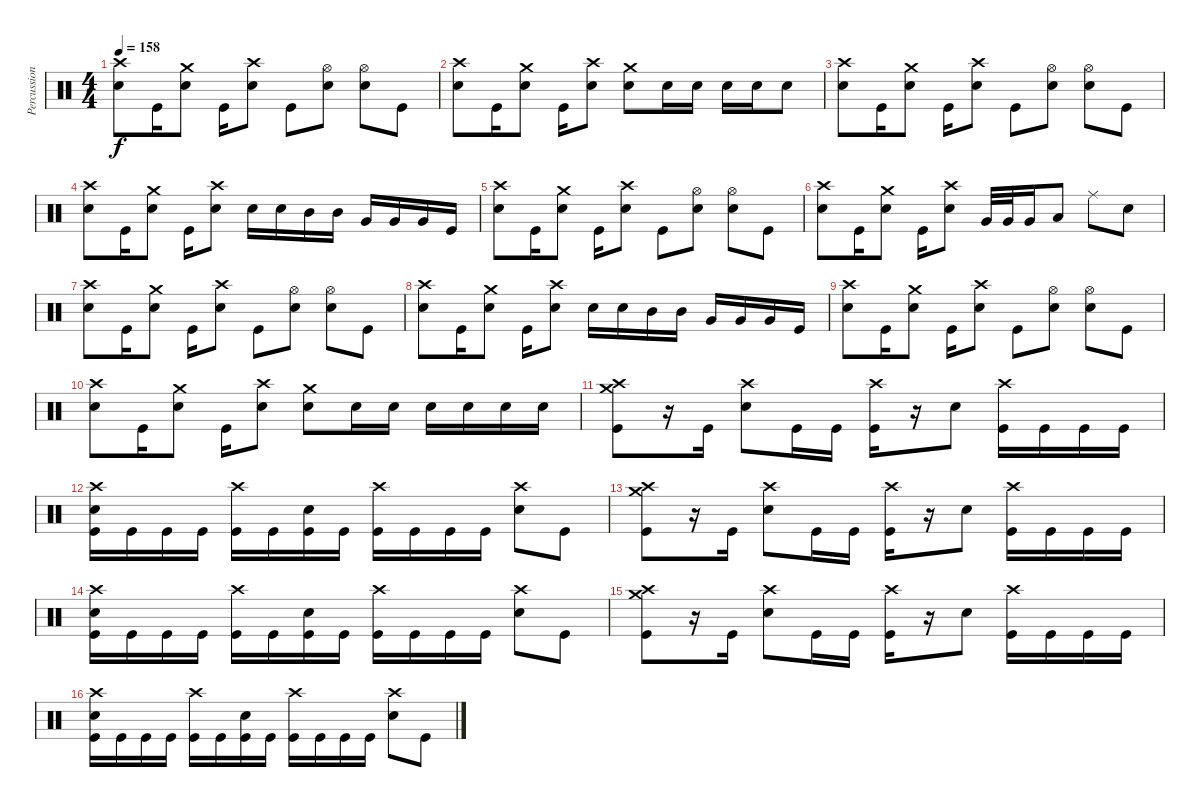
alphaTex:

\track ("Percussion" "Percussion") {instrument percussion}
\staff {score}
\articulation defaults
\ts (4 4)
\tempo 158
\clef neutral
\ks c
("Crash high (hit)" "Snare (hit) 2").8{dy f} "Kick (hit)".16 ("Crash medium (hit)" "Snare (hit) 2").8 "Kick (hit)".16 ("Crash high (hit)" "Snare (hit) 2").8 "Kick (hit)".8 ("Hi-Hat (open)" "Snare (hit) 2").8 ("Hi-Hat (open)" "Snare (hit) 2").8 "Kick (hit)".8 |
("Crash high (hit)" "Snare (hit) 2").8 "Kick (hit)".16 ("Crash medium (hit)" "Snare (hit) 2").8 "Kick (hit)".16 ("Crash high (hit)" "Snare (hit) 2").8 ("Crash medium (hit)" "Snare (hit) 2").8 "Snare (hit) 2".16 "Snare (hit) 2".16 "Snare (hit) 2".16 "Snare (hit) 2".16 "Snare (hit) 2".8 |
("Crash high (hit)" "Snare (hit) 2").8 "Kick (hit)".16 ("Crash medium (hit)" "Snare (hit) 2").8 "Kick (hit)".16 ("Crash high (hit)" "Snare (hit) 2").8 "Kick (hit)".8 ("Hi-Hat (open)" "Snare (hit) 2").8 ("Hi-Hat (open)" "Snare (hit) 2").8 "Kick (hit)".8 |
("Crash high (hit)" "Snare (hit) 2").8 "Kick (hit)".16 ("Crash medium (hit)" "Snare (hit) 2").8 "Kick (hit)".16 ("Crash high (hit)" "Snare (hit) 2").8 "Snare (hit) 2".16 "Snare (hit) 2".16 "Mid Tom (hit)".16 "Mid Tom (hit)".16 "Very Low Tom (hit)".16 "Very Low Tom (hit)".16 "Very Low Tom (hit)".16 "Kick (hit)".16 |
("Crash high (hit)" "Snare (hit) 2").8 "Kick (hit)".16 ("Crash medium (hit)" "Snare (hit) 2").8 "Kick (hit)".16 ("Crash high (hit)" "Snare (hit) 2").8 "Kick (hit)".8 ("Hi-Hat (open)" "Snare (hit) 2").8 ("Hi-Hat (open)" "Snare (hit) 2").8 "Kick (hit)".8 |
("Crash high (hit)" "Snare (hit) 2").8 "Kick (hit)".16 ("Crash medium (hit)" "Snare (hit) 2").8 "Kick (hit)".16 ("Crash high (hit)" "Snare (hit) 2").8 "Very Low Tom (hit)".32 "Very Low Tom (hit)".32 "Very Low Tom (hit)".16 "Low Floor Tom (hit)".8 "Ride (middle)".8 "Snare (hit) 2".8 |
("Crash high (hit)" "Snare (hit) 2").8 "Kick (hit)".16 ("Crash medium (hit)" "Snare (hit) 2").8 "Kick (hit)".16 ("Crash high (hit)" "Snare (hit) 2").8 "Kick (hit)".8 ("Hi-Hat (open)" "Snare (hit) 2").8 ("Hi-Hat (open)" "Snare (hit) 2").8 "Kick (hit)".8 |
("Crash high (hit)" "Snare (hit) 2").8 "Kick (hit)".16 ("Crash medium (hit)" "Snare (hit) 2").8 "Kick (hit)".16 ("Crash high (hit)" "Snare (hit) 2").8 "Snare (hit) 2".16 "Snare (hit) 2".16 "Mid Tom (hit)".16 "Mid Tom (hit)".16 "Very Low Tom (hit)".16 "Very Low Tom (hit)".16 "Very Low Tom (hit)".16 "Kick (hit)".16 |
("Crash high (hit)" "Snare (hit) 2").8 "Kick (hit)".16 ("Crash medium (hit)" "Snare (hit) 2").8 "Kick (hit)".16 ("Crash high (hit)" "Snare (hit) 2").8 "Kick (hit)".8 ("Hi-Hat (open)" "Snare (hit) 2").8 ("Hi-Hat (open)" "Snare (hit) 2").8 "Kick (hit)".8 |
("Crash high (hit)" "Snare (hit) 2").8 "Kick (hit)".16 ("Crash medium (hit)" "Snare (hit) 2").8 "Kick (hit)".16 ("Crash high (hit)" "Snare (hit) 2").8 ("Crash medium (hit)" "Snare (hit) 2").8 "Snare (hit) 2".16 "Snare (hit) 2".16 "Snare (hit) 2".16 "Snare (hit) 2".16 "Snare (hit) 2".16 "Snare (hit) 2".16 |
("Crash high (hit)" "Crash medium (hit)" "Kick (hit)").8 r.16 "Kick (hit)".16 ("Crash high (hit)" "Snare (hit) 2").8 "Kick (hit)".16 "Kick (hit)".16 ("Crash high (hit)" "Kick (hit)").16 r.16 "Snare (hit) 2".8 ("Crash high (hit)" "Kick (hit)").16 "Kick (hit)".16 "Kick (hit)".16 "Kick (hit)".16 |
("Crash high (hit)" "Snare (hit) 2" "Kick (hit)").16 "Kick (hit)".16 "Kick (hit)".16 "Kick (hit)".16 ("Crash high (hit)" "Kick (hit)").16 "Kick (hit)".16 ("Snare (hit) 2" "Kick (hit)").16 "Kick (hit)".16 ("Crash high (hit)" "Kick (hit)").16 "Kick (hit)".16 "Kick (hit)".16 "Kick (hit)".16 ("Crash high (hit)" "Snare (hit) 2").8 "Kick (hit)".8 |
("Crash high (hit)" "Crash medium (hit)" "Kick (hit)").8 r.16 "Kick (hit)".16 ("Crash high (hit)" "Snare (hit) 2").8 "Kick (hit)".16 "Kick (hit)".16 ("Crash high (hit)" "Kick (hit)").16 r.16 "Snare (hit) 2".8 ("Crash high (hit)" "Kick (hit)").16 "Kick (hit)".16 "Kick (hit)".16 "Kick (hit)".16 |
("Crash high (hit)" "Snare (hit) 2" "Kick (hit)").16 "Kick (hit)".16 "Kick (hit)".16 "Kick (hit)".16 ("Crash high (hit)" "Kick (hit)").16 "Kick (hit)".16 ("Snare (hit) 2" "Kick (hit)").16 "Kick (hit)".16 ("Crash high (hit)" "Kick (hit)").16 "Kick (hit)".16 "Kick (hit)".16 "Kick (hit)".16 ("Crash high (hit)" "Snare (hit) 2").8 "Kick (hit)".8 |
("Crash high (hit)" "Crash medium (hit)" "Kick (hit)").8 r.16 "Kick (hit)".16 ("Crash high (hit)" "Snare (hit) 2").8 "Kick (hit)".16 "Kick (hit)".16 ("Crash high (hit)" "Kick (hit)").16 r.16 "Snare (hit) 2".8 ("Crash high (hit)" "Kick (hit)").16 "Kick (hit)".16 "Kick (hit)".16 "Kick (hit)".16 |
("Crash high (hit)" "Snare (hit) 2" "Kick (hit)").16 "Kick (hit)".16 "Kick (hit)".16 "Kick (hit)".16 ("Crash high (hit)" "Kick (hit)").16 "Kick (hit)".16 ("Snare (hit) 2" "Kick (hit)").16 "Kick (hit)".16 ("Crash high (hit)" "Kick (hit)").16 "Kick (hit)".16 "Kick (hit)".16 "Kick (hit)".16 ("Crash high (hit)" "Snare (hit) 2").8 "Kick (hit)".8
